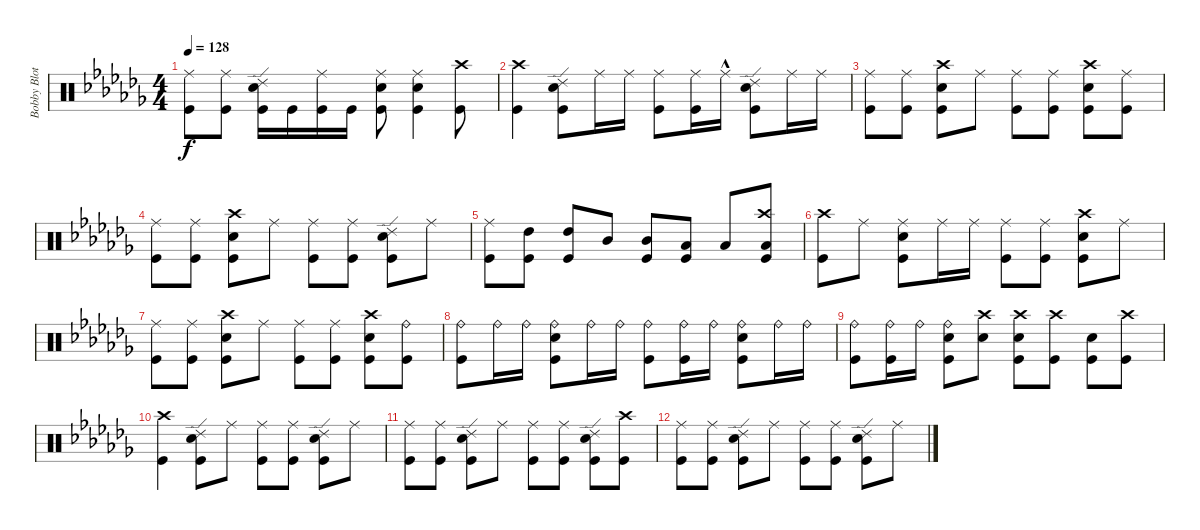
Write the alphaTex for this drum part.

\track ("Bobby Blotzer" "Bobby Blot") {instrument percussion}
\staff {score}
\articulation defaults
\ts (4 4)
\tempo 128
\clef neutral
\ks cb
("Ride (middle)" "Kick (hit)").8{dy f} ("Ride (middle)" "Kick (hit)").8 ("Snare (hit) 2" "Kick (hit)" "Ride (edge) 2").16 "Kick (hit)".16 ("Kick (hit)" "Ride (middle)").16 "Kick (hit)".16 ("Snare (hit) 2" "Kick (hit)" "Ride (middle)").8 ("Snare (hit) 2" "Kick (hit)" "Ride (middle)").4 ("Crash high (hit)" "Kick (hit)").8 |
("Crash high (hit)" "Kick (hit)").4 ("Snare (hit) 2" "Ride (edge) 2" "Kick (hit)").8 "Ride (middle)".16 "Ride (middle)".16 ("Kick (hit)" "Ride (middle)").8 ("Kick (hit)" "Ride (middle)").16 "Ride (middle)"{hac}.16 ("Kick (hit)" "Snare (hit) 2" "Ride (edge) 2").8 "Ride (middle)".16 "Ride (middle)".16 |
("Ride (middle)" "Kick (hit)").8 ("Ride (middle)" "Kick (hit)").8 ("Crash high (hit)" "Kick (hit)" "Snare (hit) 2").8 "Ride (middle)".8 ("Ride (middle)" "Kick (hit)").8 ("Kick (hit)" "Ride (middle)").8 ("Crash high (hit)" "Snare (hit) 2" "Kick (hit)").8 ("Kick (hit)" "Ride (middle)").8 |
("Ride (middle)" "Kick (hit)").8{volume 7} ("Ride (middle)" "Kick (hit)").8 ("Snare (hit) 2" "Crash high (hit)" "Kick (hit)").8 "Ride (middle)".8 ("Ride (middle)" "Kick (hit)").8 ("Kick (hit)" "Ride (middle)").8 ("Snare (hit) 2" "Kick (hit)" "Ride (edge) 2").8 "Ride (middle)".8 |
("Ride (middle)" "Kick (hit)").8 ("High Tom (hit)" "Kick (hit)").8 ("Kick (hit)" "High Tom (hit)").8 "Mid Tom (hit)".8 ("Kick (hit)" "Mid Tom (hit)").8 ("Kick (hit)" "Low Tom (hit)").8 "Low Tom (hit)".8 ("Crash high (hit)" "Low Tom (hit)" "Kick (hit)").8 |
("Kick (hit)" "Crash high (hit)").8 "Ride (middle)".8 ("Ride (middle)" "Kick (hit)" "Snare (hit) 2").8 "Ride (middle)".16 "Ride (middle)".16 ("Kick (hit)" "Ride (middle)").8 ("Kick (hit)" "Ride (middle)").8 ("Snare (hit) 2" "Kick (hit)" "Crash high (hit)").8 "Ride (middle)".8 |
("Kick (hit)" "Ride (middle)").8 ("Kick (hit)" "Ride (middle)").8 ("Snare (hit) 2" "Kick (hit)" "Crash high (hit)").8 "Ride (middle)".8 ("Ride (middle)" "Kick (hit)").8 ("Kick (hit)" "Ride (middle)").8 ("Crash high (hit)" "Kick (hit)" "Snare (hit) 2").8 ("Kick (hit)" "Ride (bell)").8 |
("Kick (hit)" "Ride (bell)").8{volume 0} "Ride (bell)".16 "Ride (bell)".16 ("Ride (bell)" "Kick (hit)" "Snare (hit) 2").8 "Ride (bell)".16 "Ride (bell)".16 ("Kick (hit)" "Ride (bell)").8 ("Kick (hit)" "Ride (bell)").16 "Ride (bell)".16 ("Snare (hit) 2" "Kick (hit)" "Ride (bell)").8 "Ride (bell)".16 "Ride (bell)".16 |
("Kick (hit)" "Ride (bell)").8 ("Kick (hit)" "Ride (bell)").16 "Ride (bell)".16 ("Snare (hit) 2" "Ride (bell)" "Kick (hit)").8 ("Snare (hit) 2" "Crash high (hit)").8 ("Snare (hit) 2" "Crash high (hit)" "Kick (hit)").8 ("Kick (hit)" "Crash high (hit)").8 ("Kick (hit)" "Snare (hit) 2").8 ("Crash high (hit)" "Kick (hit)").8 |
("Kick (hit)" "Crash high (hit)").4 ("Kick (hit)" "Snare (hit) 2" "Ride (edge) 2").8 "Ride (middle)".8 ("Kick (hit)" "Ride (middle)").8 ("Ride (middle)" "Kick (hit)").8 ("Kick (hit)" "Snare (hit) 2" "Ride (edge) 2").8 "Ride (middle)".8 |
("Ride (middle)" "Kick (hit)").8 ("Kick (hit)" "Ride (middle)").8 ("Ride (edge) 2" "Kick (hit)" "Snare (hit) 2").8 "Ride (middle)".8 ("Ride (middle)" "Kick (hit)").8 ("Ride (middle)" "Kick (hit)").8 ("Ride (edge) 2" "Kick (hit)" "Snare (hit) 2").8 ("Kick (hit)" "Crash high (hit)").8 |
("Kick (hit)" "Ride (middle)").8 ("Ride (middle)" "Kick (hit)").8 ("Kick (hit)" "Snare (hit) 2" "Ride (edge) 2").8 "Ride (middle)".8 ("Kick (hit)" "Ride (middle)").8 ("Kick (hit)" "Ride (middle)").8 ("Snare (hit) 2" "Kick (hit)" "Ride (edge) 2").8 "Ride (middle)".8
